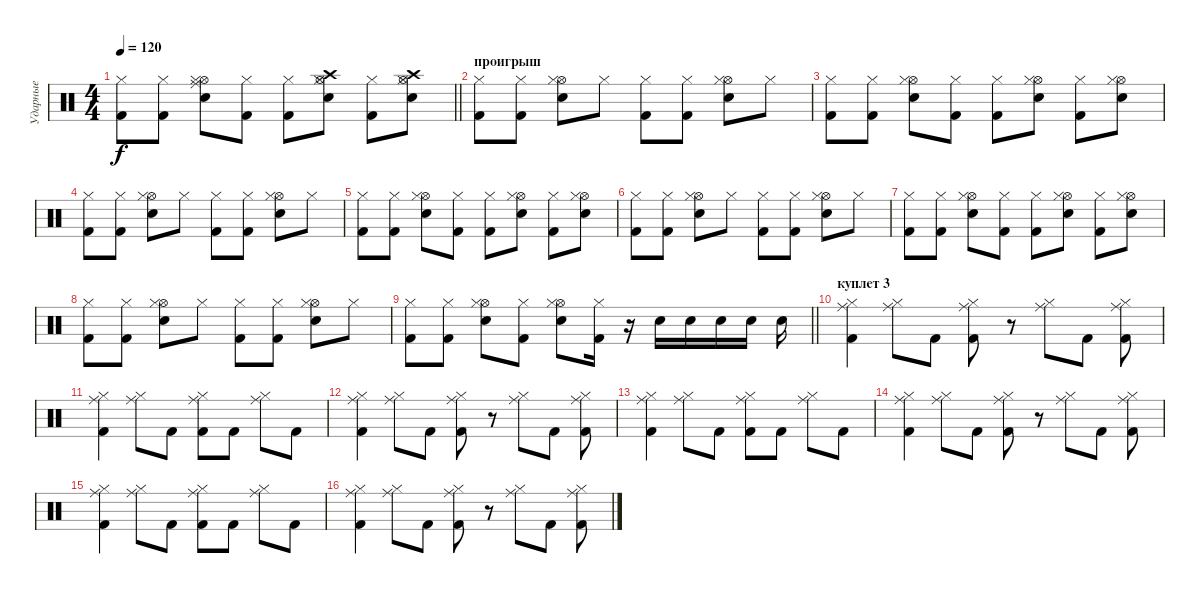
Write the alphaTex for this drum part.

\track ("Ударные" "Ударные") {instrument percussion}
\staff {score}
\articulation defaults
\ts (4 4)
\tempo 120
\clef neutral
\barLineRight lightlight
\ks c
("Kick (hit) 2" "Hi-Hat (closed)").8{dy f} ("Kick (hit) 2" "Hi-Hat (closed)").8 ("Ride (middle)" "Hi-Hat (open)" "Hi-Hat (closed)" "Snare (hit) 2").8 ("Kick (hit) 2" "Hi-Hat (closed)").8 ("Kick (hit) 2" "Hi-Hat (closed)").8 ("Crash high (hit)" "Hi-Hat (open)" "Hi-Hat (closed)" "Snare (hit) 2").8 ("Kick (hit) 2" "Hi-Hat (closed)").8 ("Crash high (hit)" "Hi-Hat (open)" "Hi-Hat (closed)" "Snare (hit) 2").8 |
\section ("" "проигрыш")
("Kick (hit) 2" "Hi-Hat (closed)").8 ("Kick (hit) 2" "Hi-Hat (closed)").8 ("Hi-Hat (open)" "Hi-Hat (closed)" "Snare (hit) 2").8 "Hi-Hat (closed)".8 ("Kick (hit) 2" "Hi-Hat (closed)").8 ("Kick (hit) 2" "Hi-Hat (closed)").8 ("Hi-Hat (open)" "Hi-Hat (closed)" "Snare (hit) 2").8 "Hi-Hat (closed)".8 |
("Kick (hit) 2" "Hi-Hat (closed)").8 ("Kick (hit) 2" "Hi-Hat (closed)").8 ("Hi-Hat (open)" "Hi-Hat (closed)" "Snare (hit) 2").8 ("Kick (hit) 2" "Hi-Hat (closed)").8 ("Kick (hit) 2" "Hi-Hat (closed)").8 ("Hi-Hat (open)" "Hi-Hat (closed)" "Snare (hit) 2").8 ("Kick (hit) 2" "Hi-Hat (closed)").8 ("Hi-Hat (open)" "Hi-Hat (closed)" "Snare (hit) 2").8 |
("Kick (hit) 2" "Hi-Hat (closed)").8 ("Kick (hit) 2" "Hi-Hat (closed)").8 ("Hi-Hat (open)" "Hi-Hat (closed)" "Snare (hit) 2").8 "Hi-Hat (closed)".8 ("Kick (hit) 2" "Hi-Hat (closed)").8 ("Kick (hit) 2" "Hi-Hat (closed)").8 ("Hi-Hat (open)" "Hi-Hat (closed)" "Snare (hit) 2").8 "Hi-Hat (closed)".8 |
("Kick (hit) 2" "Hi-Hat (closed)").8 ("Kick (hit) 2" "Hi-Hat (closed)").8 ("Hi-Hat (open)" "Hi-Hat (closed)" "Snare (hit) 2").8 ("Kick (hit) 2" "Hi-Hat (closed)").8 ("Kick (hit) 2" "Hi-Hat (closed)").8 ("Hi-Hat (open)" "Hi-Hat (closed)" "Snare (hit) 2").8 ("Kick (hit) 2" "Hi-Hat (closed)").8 ("Hi-Hat (open)" "Hi-Hat (closed)" "Snare (hit) 2").8 |
("Kick (hit) 2" "Hi-Hat (closed)").8 ("Kick (hit) 2" "Hi-Hat (closed)").8 ("Hi-Hat (open)" "Hi-Hat (closed)" "Snare (hit) 2").8 "Hi-Hat (closed)".8 ("Kick (hit) 2" "Hi-Hat (closed)").8 ("Kick (hit) 2" "Hi-Hat (closed)").8 ("Hi-Hat (open)" "Hi-Hat (closed)" "Snare (hit) 2").8 "Hi-Hat (closed)".8 |
("Kick (hit) 2" "Hi-Hat (closed)").8 ("Kick (hit) 2" "Hi-Hat (closed)").8 ("Hi-Hat (open)" "Hi-Hat (closed)" "Snare (hit) 2").8 ("Kick (hit) 2" "Hi-Hat (closed)").8 ("Kick (hit) 2" "Hi-Hat (closed)").8 ("Hi-Hat (open)" "Hi-Hat (closed)" "Snare (hit) 2").8 ("Kick (hit) 2" "Hi-Hat (closed)").8 ("Hi-Hat (open)" "Hi-Hat (closed)" "Snare (hit) 2").8 |
("Kick (hit) 2" "Hi-Hat (closed)").8 ("Kick (hit) 2" "Hi-Hat (closed)").8 ("Hi-Hat (open)" "Hi-Hat (closed)" "Snare (hit) 2").8 "Hi-Hat (closed)".8 ("Kick (hit) 2" "Hi-Hat (closed)").8 ("Kick (hit) 2" "Hi-Hat (closed)").8 ("Hi-Hat (open)" "Hi-Hat (closed)" "Snare (hit) 2").8 "Hi-Hat (closed)".8 |
\barLineRight lightlight
("Kick (hit) 2" "Hi-Hat (closed)").8 ("Kick (hit) 2" "Hi-Hat (closed)").8 ("Hi-Hat (open)" "Hi-Hat (closed)" "Snare (hit) 2").8 ("Kick (hit) 2" "Hi-Hat (closed)").8 ("Hi-Hat (open)" "Hi-Hat (closed)" "Snare (hit) 2").8 ("Kick (hit) 2" "Hi-Hat (closed)").16 r.16 "Snare (hit) 2".16 "Snare (hit) 2".16 "Snare (hit) 2".16 "Snare (hit) 2".16 "Snare (hit) 2".16 |
\section ("" "куплет 3")
("Hi-Hat (closed)" "Ride (middle)" "Kick (hit) 2").4 ("Hi-Hat (closed)" "Ride (middle)").8 "Kick (hit) 2".8 ("Hi-Hat (closed)" "Ride (middle)" "Kick (hit) 2").8 r.8 ("Hi-Hat (closed)" "Ride (middle)").8 "Kick (hit) 2".8 ("Hi-Hat (closed)" "Ride (middle)" "Kick (hit) 2").8 |
("Hi-Hat (closed)" "Ride (middle)" "Kick (hit) 2").4 ("Hi-Hat (closed)" "Ride (middle)").8 "Kick (hit) 2".8 ("Hi-Hat (closed)" "Ride (middle)" "Kick (hit) 2").8 "Kick (hit) 2".8 ("Hi-Hat (closed)" "Ride (middle)").8 "Kick (hit) 2".8 |
("Hi-Hat (closed)" "Ride (middle)" "Kick (hit) 2").4 ("Hi-Hat (closed)" "Ride (middle)").8 "Kick (hit) 2".8 ("Hi-Hat (closed)" "Ride (middle)" "Kick (hit) 2").8 r.8 ("Hi-Hat (closed)" "Ride (middle)").8 "Kick (hit) 2".8 ("Hi-Hat (closed)" "Ride (middle)" "Kick (hit) 2").8 |
("Hi-Hat (closed)" "Ride (middle)" "Kick (hit) 2").4 ("Hi-Hat (closed)" "Ride (middle)").8 "Kick (hit) 2".8 ("Hi-Hat (closed)" "Ride (middle)" "Kick (hit) 2").8 "Kick (hit) 2".8 ("Hi-Hat (closed)" "Ride (middle)").8 "Kick (hit) 2".8 |
("Hi-Hat (closed)" "Ride (middle)" "Kick (hit) 2").4 ("Hi-Hat (closed)" "Ride (middle)").8 "Kick (hit) 2".8 ("Hi-Hat (closed)" "Ride (middle)" "Kick (hit) 2").8 r.8 ("Hi-Hat (closed)" "Ride (middle)").8 "Kick (hit) 2".8 ("Hi-Hat (closed)" "Ride (middle)" "Kick (hit) 2").8 |
("Hi-Hat (closed)" "Ride (middle)" "Kick (hit) 2").4 ("Hi-Hat (closed)" "Ride (middle)").8 "Kick (hit) 2".8 ("Hi-Hat (closed)" "Ride (middle)" "Kick (hit) 2").8 "Kick (hit) 2".8 ("Hi-Hat (closed)" "Ride (middle)").8 "Kick (hit) 2".8 |
("Hi-Hat (closed)" "Ride (middle)" "Kick (hit) 2").4 ("Hi-Hat (closed)" "Ride (middle)").8 "Kick (hit) 2".8 ("Hi-Hat (closed)" "Ride (middle)" "Kick (hit) 2").8 r.8 ("Hi-Hat (closed)" "Ride (middle)").8 "Kick (hit) 2".8 ("Hi-Hat (closed)" "Ride (middle)" "Kick (hit) 2").8
